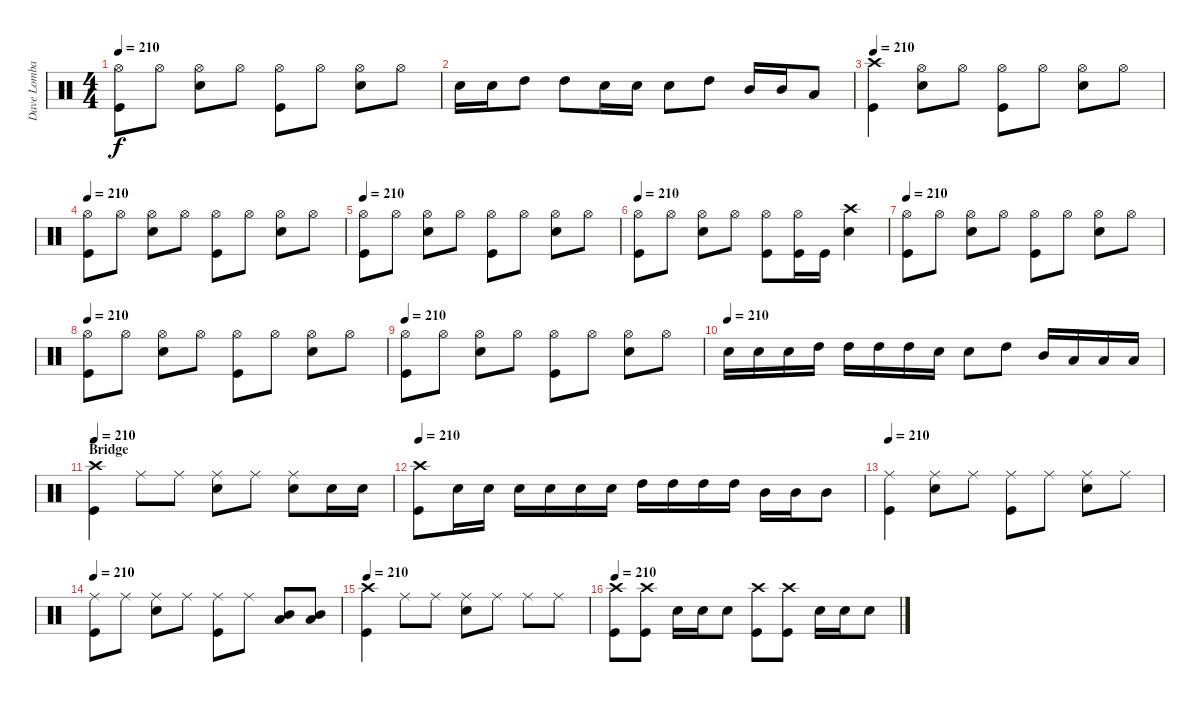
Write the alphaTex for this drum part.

\track ("Dave Lombardo" "Dave Lomba") {instrument percussion}
\staff {score}
\articulation defaults
\ts (4 4)
\tempo 210
\clef neutral
\ks c
("Hi-Hat (open)" "Kick (hit)").8{dy f} "Hi-Hat (open)".8 ("Hi-Hat (open)" "Snare (hit) 2").8 "Hi-Hat (open)".8 ("Hi-Hat (open)" "Kick (hit)").8 "Hi-Hat (open)".8 ("Hi-Hat (open)" "Snare (hit) 2").8 "Hi-Hat (open)".8 |
"Snare (hit) 2".16 "Snare (hit) 2".16 "High Tom (hit)".8 "High Tom (hit)".8 "Snare (hit) 2".16 "Snare (hit) 2".16 "Snare (hit) 2".8 "High Tom (hit)".8 "Mid Tom (hit)".16 "Mid Tom (hit)".16 "Low Tom (hit)".8 |
\tempo 210
("Crash high (hit)" "Kick (hit)").4 ("Hi-Hat (open)" "Snare (hit) 2").8 "Hi-Hat (open)".8 ("Hi-Hat (open)" "Kick (hit)").8 "Hi-Hat (open)".8 ("Hi-Hat (open)" "Snare (hit) 2").8 "Hi-Hat (open)".8 |
\tempo 210
("Hi-Hat (open)" "Kick (hit)").8 "Hi-Hat (open)".8 ("Hi-Hat (open)" "Snare (hit) 2").8 "Hi-Hat (open)".8 ("Hi-Hat (open)" "Kick (hit)").8 "Hi-Hat (open)".8 ("Hi-Hat (open)" "Snare (hit) 2").8 "Hi-Hat (open)".8 |
\tempo 210
("Hi-Hat (open)" "Kick (hit)").8 "Hi-Hat (open)".8 ("Hi-Hat (open)" "Snare (hit) 2").8 "Hi-Hat (open)".8 ("Hi-Hat (open)" "Kick (hit)").8 "Hi-Hat (open)".8 ("Hi-Hat (open)" "Snare (hit) 2").8 "Hi-Hat (open)".8 |
\tempo 210
("Hi-Hat (open)" "Kick (hit)").8 "Hi-Hat (open)".8 ("Hi-Hat (open)" "Snare (hit) 2").8 "Hi-Hat (open)".8 ("Hi-Hat (open)" "Kick (hit)").8 ("Hi-Hat (open)" "Kick (hit)").16 "Kick (hit)".16 ("Crash high (hit)" "Snare (hit) 2").4 |
\tempo 210
("Hi-Hat (open)" "Kick (hit)").8 "Hi-Hat (open)".8 ("Hi-Hat (open)" "Snare (hit) 2").8 "Hi-Hat (open)".8 ("Hi-Hat (open)" "Kick (hit)").8 "Hi-Hat (open)".8 ("Hi-Hat (open)" "Snare (hit) 2").8 "Hi-Hat (open)".8 |
\tempo 210
("Hi-Hat (open)" "Kick (hit)").8 "Hi-Hat (open)".8 ("Hi-Hat (open)" "Snare (hit) 2").8 "Hi-Hat (open)".8 ("Hi-Hat (open)" "Kick (hit)").8 "Hi-Hat (open)".8 ("Hi-Hat (open)" "Snare (hit) 2").8 "Hi-Hat (open)".8 |
\tempo 210
("Hi-Hat (open)" "Kick (hit)").8 "Hi-Hat (open)".8 ("Hi-Hat (open)" "Snare (hit) 2").8 "Hi-Hat (open)".8 ("Hi-Hat (open)" "Kick (hit)").8 "Hi-Hat (open)".8 ("Hi-Hat (open)" "Snare (hit) 2").8 "Hi-Hat (open)".8 |
\tempo (210)
"Snare (hit) 2".16 "Snare (hit) 2".16 "Snare (hit) 2".16 "High Tom (hit)".16 "High Tom (hit)".16 "High Tom (hit)".16 "High Tom (hit)".16 "Snare (hit) 2".16 "Snare (hit) 2".8 "High Tom (hit)".8 "Mid Tom (hit)".16 "Low Tom (hit)".16 "Low Tom (hit)".16 "Low Tom (hit)".16 |
\section ("" "Bridge")
\tempo 210
("Crash high (hit)" "Kick (hit)").4 "Ride (middle)".8 "Ride (middle)".8 ("Ride (middle)" "Snare (hit) 2").8 "Ride (middle)".8 ("Ride (middle)" "Snare (hit) 2").8 "Snare (hit) 2".16 "Snare (hit) 2".16 |
\tempo 210
("Crash high (hit)" "Kick (hit)").8 "Snare (hit) 2".16 "Snare (hit) 2".16 "Snare (hit) 2".16 "Snare (hit) 2".16 "Snare (hit) 2".16 "Snare (hit) 2".16 "High Tom (hit)".16 "High Tom (hit)".16 "High Tom (hit)".16 "High Tom (hit)".16 "Mid Tom (hit)".16 "Mid Tom (hit)".16 "Mid Tom (hit)".8 |
\tempo 210
("Ride (middle)" "Kick (hit)").4 ("Ride (middle)" "Snare (hit) 2").8 "Ride (middle)".8 ("Ride (middle)" "Kick (hit)").8 "Ride (middle)".8 ("Ride (middle)" "Snare (hit) 2").8 "Ride (middle)".8 |
\tempo 210
("Ride (middle)" "Kick (hit)").8 "Ride (middle)".8 ("Ride (middle)" "Snare (hit) 2").8 "Ride (middle)".8 ("Ride (middle)" "Kick (hit)").8 "Ride (middle)".8 ("Low Tom (hit)" "Mid Tom (hit)").8 ("Low Tom (hit)" "Mid Tom (hit)").8 |
\tempo 210
("Crash high (hit)" "Kick (hit)").4 "Ride (middle)".8 "Ride (middle)".8 ("Ride (middle)" "Snare (hit) 2").8 "Ride (middle)".8 "Ride (middle)".8 "Ride (middle)".8 |
\tempo 210
("Crash high (hit)" "Kick (hit)").8 ("Crash high (hit)" "Kick (hit)").8 "Snare (hit) 2".16 "Snare (hit) 2".16 "Snare (hit) 2".8 ("Crash high (hit)" "Kick (hit)").8 ("Crash high (hit)" "Kick (hit)").8 "Snare (hit) 2".16 "Snare (hit) 2".16 "Snare (hit) 2".8
